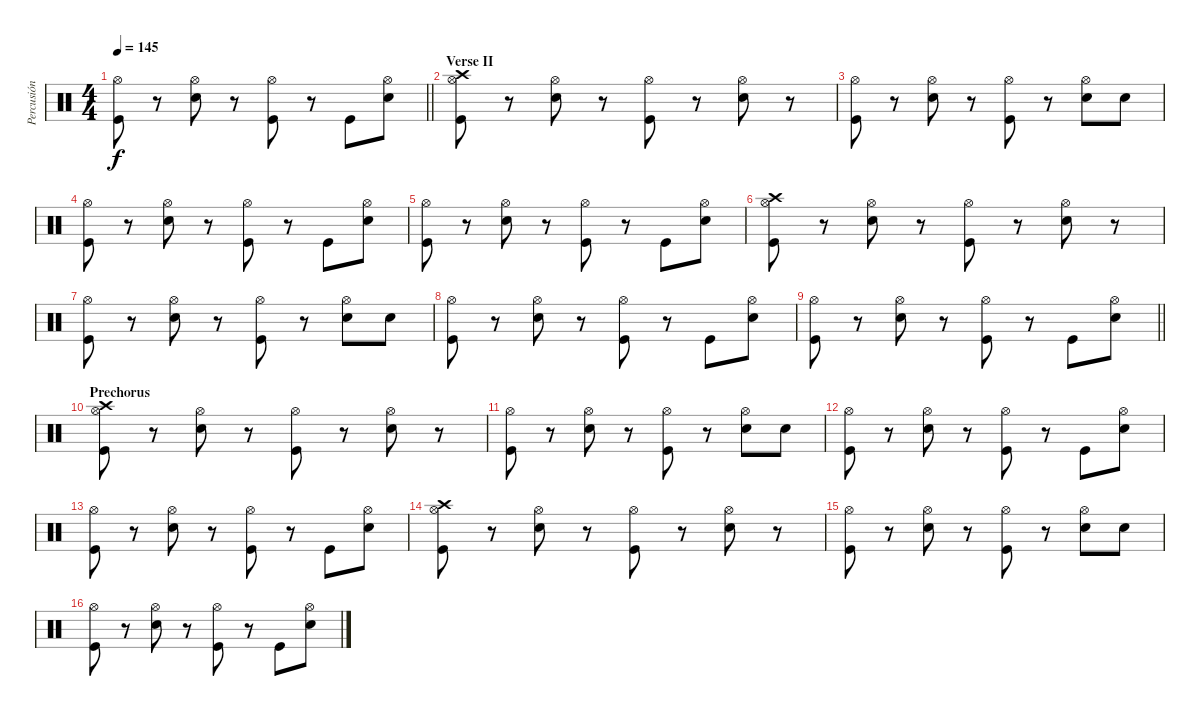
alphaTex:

\track ("Percusión" "Percusión") {instrument percussion}
\staff {score}
\articulation defaults
\ts (4 4)
\tempo 145
\clef neutral
\barLineRight lightlight
\ks c
("Hi-Hat (open)" "Kick (hit)").8{dy f} r.8 ("Hi-Hat (open)" "Electric Snare (hit)").8 r.8 ("Hi-Hat (open)" "Kick (hit)").8 r.8 "Kick (hit)".8 ("Hi-Hat (open)" "Electric Snare (hit)").8 |
\section ("" "Verse II")
("Crash high (hit)" "Hi-Hat (open)" "Kick (hit)").8 r.8 ("Hi-Hat (open)" "Electric Snare (hit)").8 r.8 ("Hi-Hat (open)" "Kick (hit)").8 r.8 ("Hi-Hat (open)" "Electric Snare (hit)").8 r.8 |
("Hi-Hat (open)" "Kick (hit)").8 r.8 ("Hi-Hat (open)" "Electric Snare (hit)").8 r.8 ("Hi-Hat (open)" "Kick (hit)").8 r.8 ("Hi-Hat (open)" "Electric Snare (hit)").8 "Electric Snare (hit)".8 |
("Hi-Hat (open)" "Kick (hit)").8 r.8 ("Hi-Hat (open)" "Electric Snare (hit)").8 r.8 ("Hi-Hat (open)" "Kick (hit)").8 r.8 "Kick (hit)".8 ("Hi-Hat (open)" "Electric Snare (hit)").8 |
("Hi-Hat (open)" "Kick (hit)").8 r.8 ("Hi-Hat (open)" "Electric Snare (hit)").8 r.8 ("Hi-Hat (open)" "Kick (hit)").8 r.8 "Kick (hit)".8 ("Hi-Hat (open)" "Electric Snare (hit)").8 |
("Crash high (hit)" "Hi-Hat (open)" "Kick (hit)").8 r.8 ("Hi-Hat (open)" "Electric Snare (hit)").8 r.8 ("Hi-Hat (open)" "Kick (hit)").8 r.8 ("Hi-Hat (open)" "Electric Snare (hit)").8 r.8 |
("Hi-Hat (open)" "Kick (hit)").8 r.8 ("Hi-Hat (open)" "Electric Snare (hit)").8 r.8 ("Hi-Hat (open)" "Kick (hit)").8 r.8 ("Hi-Hat (open)" "Electric Snare (hit)").8 "Electric Snare (hit)".8 |
("Hi-Hat (open)" "Kick (hit)").8 r.8 ("Hi-Hat (open)" "Electric Snare (hit)").8 r.8 ("Hi-Hat (open)" "Kick (hit)").8 r.8 "Kick (hit)".8 ("Hi-Hat (open)" "Electric Snare (hit)").8 |
\barLineRight lightlight
("Hi-Hat (open)" "Kick (hit)").8 r.8 ("Hi-Hat (open)" "Electric Snare (hit)").8 r.8 ("Hi-Hat (open)" "Kick (hit)").8 r.8 "Kick (hit)".8 ("Hi-Hat (open)" "Electric Snare (hit)").8 |
\section ("" "Prechorus")
("Crash high (hit)" "Hi-Hat (open)" "Kick (hit)").8 r.8 ("Hi-Hat (open)" "Electric Snare (hit)").8 r.8 ("Hi-Hat (open)" "Kick (hit)").8 r.8 ("Hi-Hat (open)" "Electric Snare (hit)").8 r.8 |
("Hi-Hat (open)" "Kick (hit)").8 r.8 ("Hi-Hat (open)" "Electric Snare (hit)").8 r.8 ("Hi-Hat (open)" "Kick (hit)").8 r.8 ("Hi-Hat (open)" "Electric Snare (hit)").8 "Electric Snare (hit)".8 |
("Hi-Hat (open)" "Kick (hit)").8 r.8 ("Hi-Hat (open)" "Electric Snare (hit)").8 r.8 ("Hi-Hat (open)" "Kick (hit)").8 r.8 "Kick (hit)".8 ("Hi-Hat (open)" "Electric Snare (hit)").8 |
("Hi-Hat (open)" "Kick (hit)").8 r.8 ("Hi-Hat (open)" "Electric Snare (hit)").8 r.8 ("Hi-Hat (open)" "Kick (hit)").8 r.8 "Kick (hit)".8 ("Hi-Hat (open)" "Electric Snare (hit)").8 |
("Crash high (hit)" "Hi-Hat (open)" "Kick (hit)").8 r.8 ("Hi-Hat (open)" "Electric Snare (hit)").8 r.8 ("Hi-Hat (open)" "Kick (hit)").8 r.8 ("Hi-Hat (open)" "Electric Snare (hit)").8 r.8 |
("Hi-Hat (open)" "Kick (hit)").8 r.8 ("Hi-Hat (open)" "Electric Snare (hit)").8 r.8 ("Hi-Hat (open)" "Kick (hit)").8 r.8 ("Hi-Hat (open)" "Electric Snare (hit)").8 "Electric Snare (hit)".8 |
("Hi-Hat (open)" "Kick (hit)").8 r.8 ("Hi-Hat (open)" "Electric Snare (hit)").8 r.8 ("Hi-Hat (open)" "Kick (hit)").8 r.8 "Kick (hit)".8 ("Hi-Hat (open)" "Electric Snare (hit)").8
